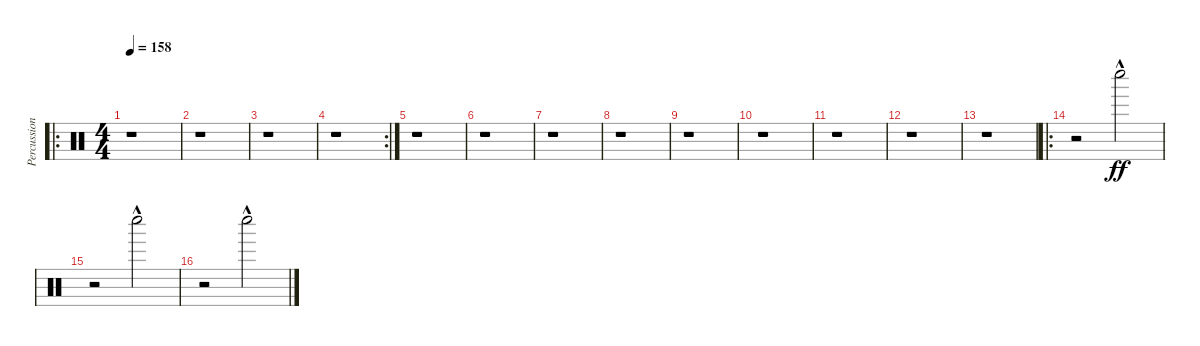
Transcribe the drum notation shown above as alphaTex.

\track ("Percussion" "Percussion") {instrument percussion}
\staff {score}
\articulation defaults
\ro
\ts (4 4)
\tempo 158
\clef neutral
\ks c
r.1{dy ff} |
r.1 |
r.1 |
\rc 2
r.1 |
r.1 |
r.1 |
r.1 |
r.1 |
r.1 |
r.1 |
r.1 |
r.1 |
r.1 |
\ro
r.2 "Whistle low (hit)"{hac}.2 |
r.2 "Whistle low (hit)"{hac}.2 |
r.2 "Whistle low (hit)"{hac}.2
